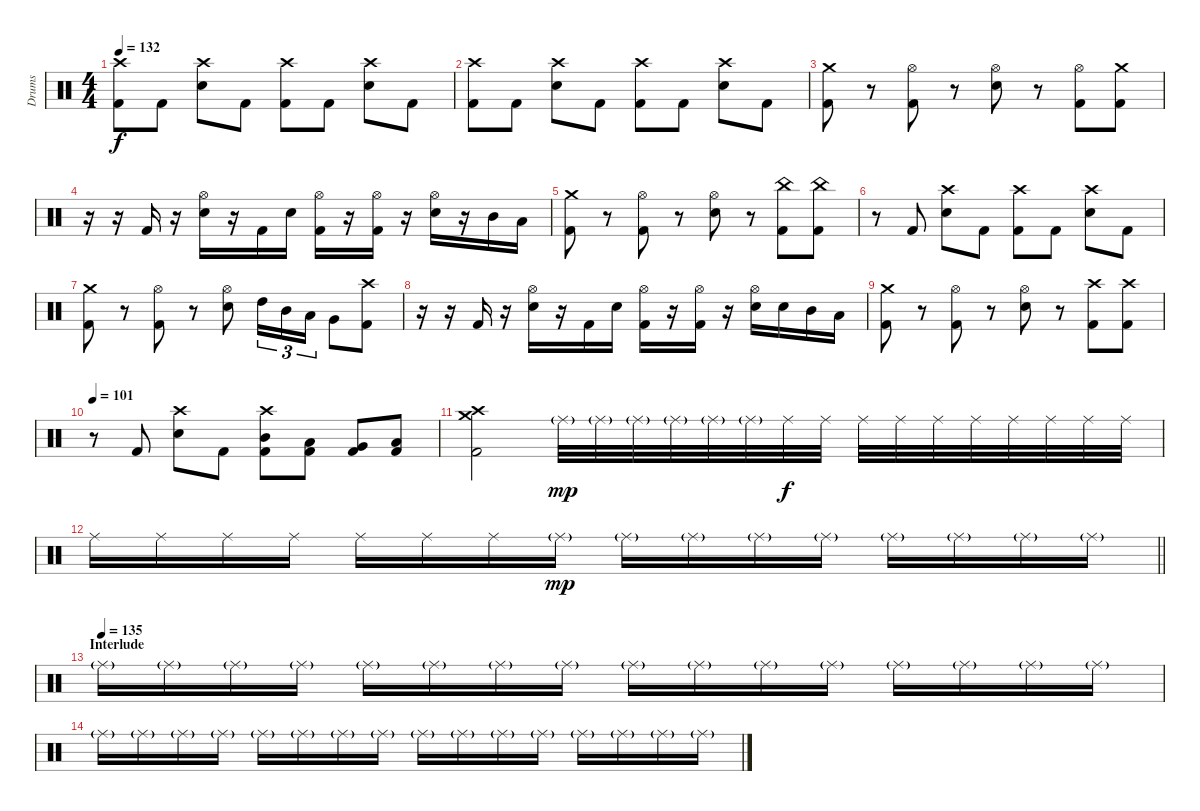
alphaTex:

\track ("Drums" "Drums") {instrument percussion}
\staff {score}
\articulation defaults
\ts (4 4)
\tempo 132
\clef neutral
\ks c
("Crash high (hit)" "Kick (hit) 2").8{dy f} "Kick (hit) 2".8 ("Crash high (hit)" "Snare (hit) 2").8 "Kick (hit) 2".8 ("Crash high (hit)" "Kick (hit) 2").8 "Kick (hit) 2".8 ("Crash high (hit)" "Snare (hit) 2").8 "Kick (hit) 2".8 |
("Crash high (hit)" "Kick (hit) 2").8 "Kick (hit) 2".8 ("Crash high (hit)" "Snare (hit) 2").8 "Kick (hit) 2".8 ("Crash high (hit)" "Kick (hit) 2").8 "Kick (hit) 2".8 ("Crash high (hit)" "Snare (hit) 2").8 "Kick (hit) 2".8 |
("Crash medium (hit)" "Kick (hit) 2").8 r.8 ("Hi-Hat (open)" "Kick (hit) 2").8 r.8 ("Hi-Hat (open)" "Snare (hit) 2").8 r.8 ("Hi-Hat (open)" "Kick (hit) 2").8 ("Crash medium (hit)" "Kick (hit) 2").8 |
r.16 r.16 "Kick (hit) 2".16 r.16 ("Hi-Hat (open)" "Snare (hit) 2").16 r.16 "Kick (hit) 2".16 "Snare (hit) 2".16 ("Hi-Hat (open)" "Kick (hit) 2").16 r.16 ("Hi-Hat (open)" "Kick (hit) 2").16 r.16 ("Hi-Hat (open)" "Snare (hit) 2").16 r.16 "Mid Tom (hit)".16 "Low Tom (hit)".16 |
("Crash medium (hit)" "Kick (hit) 2").8 r.8 ("Hi-Hat (open)" "Kick (hit) 2").8 r.8 ("Hi-Hat (open)" "Snare (hit) 2").8 r.8 ("China (hit)" "Kick (hit) 2").8 ("China (hit)" "Kick (hit) 2").8 |
r.8 "Kick (hit) 2".8 ("Crash high (hit)" "Snare (hit) 2").8 "Kick (hit) 2".8 ("Crash high (hit)" "Kick (hit) 2").8 "Kick (hit) 2".8 ("Crash high (hit)" "Snare (hit) 2").8 "Kick (hit) 2".8 |
("Crash medium (hit)" "Kick (hit) 2").8 r.8 ("Hi-Hat (open)" "Kick (hit) 2").8 r.8 ("Hi-Hat (open)" "Snare (hit) 2").8 "High Tom (hit)".16{tu (3 2)} "Mid Tom (hit)".16{tu (3 2)} "Low Tom (hit)".16{tu (3 2)} "Very Low Tom (hit)".8 ("Crash high (hit)" "Kick (hit) 2").8 |
r.16 r.16 "Kick (hit) 2".16 r.16 ("Hi-Hat (open)" "Snare (hit) 2").16 r.16 "Kick (hit) 2".16 "Snare (hit) 2".16 ("Hi-Hat (open)" "Kick (hit) 2").16 r.16 ("Hi-Hat (open)" "Kick (hit) 2").16 r.16 ("Hi-Hat (open)" "Snare (hit) 2").16 "Snare (hit) 2".16 "Mid Tom (hit)".16 "Low Tom (hit)".16 |
("Crash medium (hit)" "Kick (hit) 2").8 r.8 ("Hi-Hat (open)" "Kick (hit) 2").8 r.8 ("Hi-Hat (open)" "Snare (hit) 2").8 r.8 ("Crash high (hit)" "Kick (hit) 2").8 ("Crash high (hit)" "Kick (hit) 2").8 |
\tempo 101
r.8 "Kick (hit) 2".8 ("Crash high (hit)" "Snare (hit) 2").8 "Kick (hit) 2".8 ("Crash high (hit)" "Mid Tom (hit)" "Kick (hit) 2").8 ("Low Tom (hit)" "Kick (hit) 2").8 ("Very Low Tom (hit)" "Kick (hit) 2").8 ("Low Floor Tom (hit)" "Kick (hit) 2").8 |
("Crash high (hit)" "Crash medium (hit)" "Kick (hit) 2").2 "Ride (middle)"{g}.32{dy mp} "Ride (middle)"{g}.32 "Ride (middle)"{g}.32 "Ride (middle)"{g}.32 "Ride (middle)"{g}.32 "Ride (middle)"{g}.32 "Ride (middle)".32{dy f} "Ride (middle)".32 "Ride (middle)".32 "Ride (middle)".32 "Ride (middle)".32 "Ride (middle)".32 "Ride (middle)".32 "Ride (middle)".32 "Ride (middle)".32 "Ride (middle)".32 |
\barLineRight lightlight "Ride (middle)".16 "Ride (middle)".16 "Ride (middle)".16 "Ride (middle)".16 "Ride (middle)".16 "Ride (middle)".16 "Ride (middle)".16 "Ride (middle)"{g}.16{dy mp} "Ride (middle)"{g}.16 "Ride (middle)"{g}.16 "Ride (middle)"{g}.16 "Ride (middle)"{g}.16 "Ride (middle)"{g}.16 "Ride (middle)"{g}.16 "Ride (middle)"{g}.16 "Ride (middle)"{g}.16
|
\section ("" "Interlude")
\tempo (135)
"Ride (middle)"{g}.16{volume 0} "Ride (middle)"{g}.16 "Ride (middle)"{g}.16 "Ride (middle)"{g}.16 "Ride (middle)"{g}.16 "Ride (middle)"{g}.16 "Ride (middle)"{g}.16 "Ride (middle)"{g}.16 "Ride (middle)"{g}.16 "Ride (middle)"{g}.16 "Ride (middle)"{g}.16 "Ride (middle)"{g}.16 "Ride (middle)"{g}.16 "Ride (middle)"{g}.16 "Ride (middle)"{g}.16 "Ride (middle)"{g}.16 |
"Ride (middle)"{g}.16 "Ride (middle)"{g}.16 "Ride (middle)"{g}.16 "Ride (middle)"{g}.16 "Ride (middle)"{g}.16 "Ride (middle)"{g}.16 "Ride (middle)"{g}.16 "Ride (middle)"{g}.16 "Ride (middle)"{g}.16 "Ride (middle)"{g}.16 "Ride (middle)"{g}.16 "Ride (middle)"{g}.16 "Ride (middle)"{g}.16 "Ride (middle)"{g}.16 "Ride (middle)"{g}.16 "Ride (middle)"{g}.16
